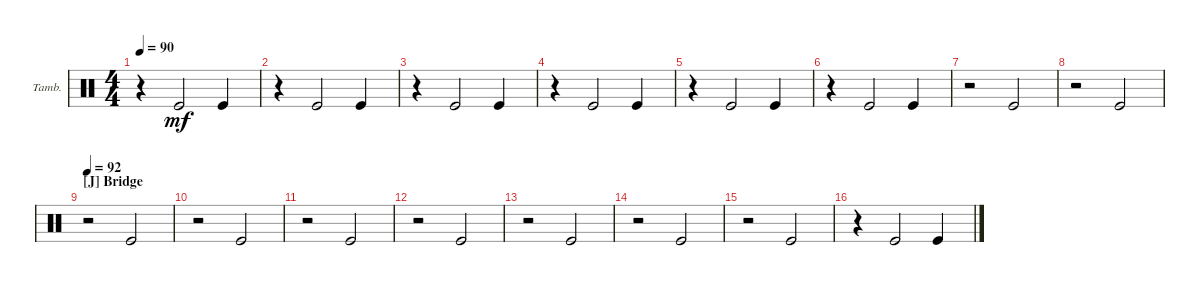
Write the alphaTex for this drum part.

\defaultSystemsLayout 4
\bracketExtendMode groupsimilarinstruments
\firstSystemTrackNameOrientation horizontal
\otherSystemsTrackNameOrientation horizontal
\track ("Tambourine" "Tamb.") {instrument percussion}
\staff {score}
\articulation defaults
\ts (4 4)
\tempo 90
\clef neutral
\ks c
r.4{dy mf} "Kick (hit)".2 "Kick (hit)".4 |
r.4 "Kick (hit)".2 "Kick (hit)".4 |
r.4 "Kick (hit)".2 "Kick (hit)".4 |
r.4 "Kick (hit)".2 "Kick (hit)".4 |
r.4 "Kick (hit)".2 "Kick (hit)".4 |
r.4 "Kick (hit)".2 "Kick (hit)".4 |
r.2 "Kick (hit)".2 |
r.2 "Kick (hit)".2 |
\section ("J" "Bridge")
\tempo 92
r.2 "Kick (hit)".2 |
r.2 "Kick (hit)".2 |
r.2 "Kick (hit)".2 |
r.2 "Kick (hit)".2 |
r.2 "Kick (hit)".2 |
r.2 "Kick (hit)".2 |
r.2 "Kick (hit)".2 |
r.4 "Kick (hit)".2 "Kick (hit)".4
